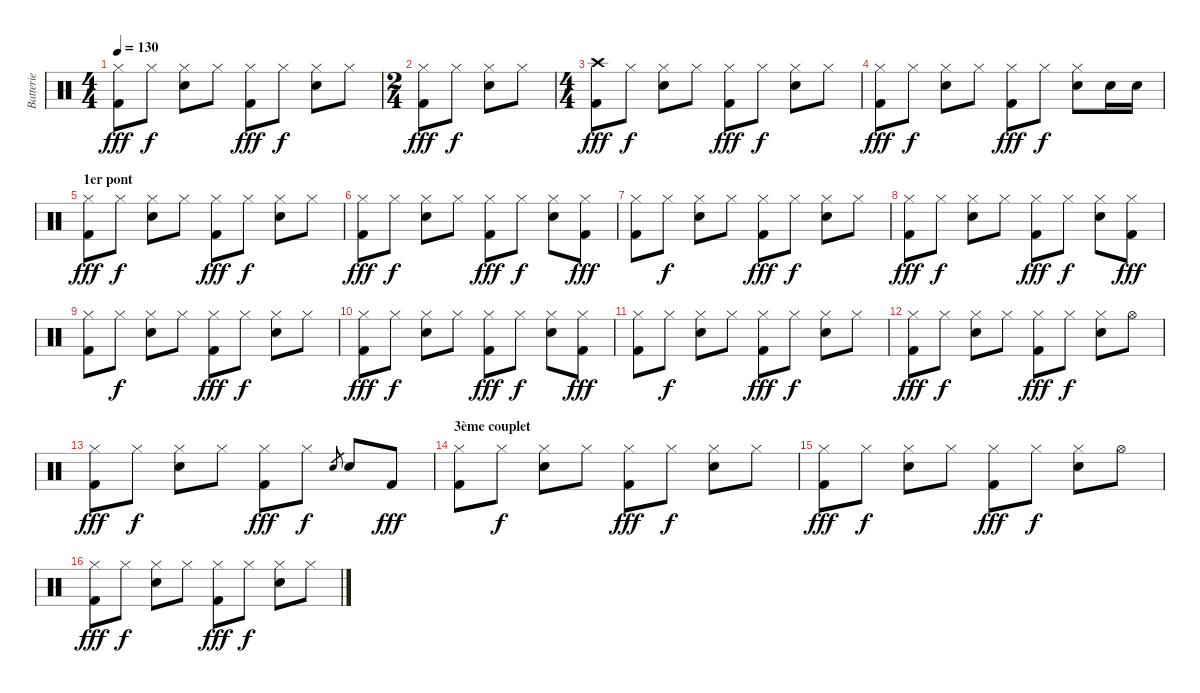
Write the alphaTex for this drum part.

\track ("Batterie" "Batterie") {instrument percussion}
\staff {score}
\articulation defaults
\ts (4 4)
\tempo 130
\clef neutral
\ks c
("Hi-Hat (closed)" "Kick (hit) 2").8{dy fff} "Hi-Hat (closed)".8{dy f} ("Hi-Hat (closed)" "Snare (hit) 2").8 "Hi-Hat (closed)".8 ("Hi-Hat (closed)" "Kick (hit) 2").8{dy fff} "Hi-Hat (closed)".8{dy f} ("Hi-Hat (closed)" "Snare (hit) 2").8 "Hi-Hat (closed)".8 |
\ts (2 4)
("Hi-Hat (closed)" "Kick (hit) 2").8{dy fff} "Hi-Hat (closed)".8{dy f} ("Hi-Hat (closed)" "Snare (hit) 2").8 "Hi-Hat (closed)".8 |
\ts (4 4)
("Crash high (hit)" "Kick (hit) 2").8{dy fff} "Hi-Hat (closed)".8{dy f} ("Hi-Hat (closed)" "Snare (hit) 2").8 "Hi-Hat (closed)".8 ("Hi-Hat (closed)" "Kick (hit) 2").8{dy fff} "Hi-Hat (closed)".8{dy f} ("Hi-Hat (closed)" "Snare (hit) 2").8 "Hi-Hat (closed)".8 |
("Hi-Hat (closed)" "Kick (hit) 2").8{dy fff} "Hi-Hat (closed)".8{dy f} ("Hi-Hat (closed)" "Snare (hit) 2").8 "Hi-Hat (closed)".8 ("Hi-Hat (closed)" "Kick (hit) 2").8{dy fff} "Hi-Hat (closed)".8{dy f} ("Hi-Hat (closed)" "Snare (hit) 2").8 "Snare (hit) 2".16 "Snare (hit) 2".16 |
\section ("" "1er pont")
("Hi-Hat (closed)" "Kick (hit) 2").8{dy fff} "Hi-Hat (closed)".8{dy f} ("Hi-Hat (closed)" "Snare (hit) 2").8 "Hi-Hat (closed)".8 ("Hi-Hat (closed)" "Kick (hit) 2").8{dy fff} "Hi-Hat (closed)".8{dy f} ("Hi-Hat (closed)" "Snare (hit) 2").8 "Hi-Hat (closed)".8 |
("Hi-Hat (closed)" "Kick (hit) 2").8{dy fff} "Hi-Hat (closed)".8{dy f} ("Hi-Hat (closed)" "Snare (hit) 2").8 "Hi-Hat (closed)".8 ("Hi-Hat (closed)" "Kick (hit) 2").8{dy fff} "Hi-Hat (closed)".8{dy f} ("Hi-Hat (closed)" "Snare (hit) 2").8 ("Hi-Hat (closed)" "Kick (hit) 2").8{dy fff} |
("Hi-Hat (closed)" "Kick (hit) 2").8 "Hi-Hat (closed)".8{dy f} ("Hi-Hat (closed)" "Snare (hit) 2").8 "Hi-Hat (closed)".8 ("Hi-Hat (closed)" "Kick (hit) 2").8{dy fff} "Hi-Hat (closed)".8{dy f} ("Hi-Hat (closed)" "Snare (hit) 2").8 "Hi-Hat (closed)".8 |
("Hi-Hat (closed)" "Kick (hit) 2").8{dy fff} "Hi-Hat (closed)".8{dy f} ("Hi-Hat (closed)" "Snare (hit) 2").8 "Hi-Hat (closed)".8 ("Hi-Hat (closed)" "Kick (hit) 2").8{dy fff} "Hi-Hat (closed)".8{dy f} ("Hi-Hat (closed)" "Snare (hit) 2").8 ("Hi-Hat (closed)" "Kick (hit) 2").8{dy fff} |
("Hi-Hat (closed)" "Kick (hit) 2").8 "Hi-Hat (closed)".8{dy f} ("Hi-Hat (closed)" "Snare (hit) 2").8 "Hi-Hat (closed)".8 ("Hi-Hat (closed)" "Kick (hit) 2").8{dy fff} "Hi-Hat (closed)".8{dy f} ("Hi-Hat (closed)" "Snare (hit) 2").8 "Hi-Hat (closed)".8 |
("Hi-Hat (closed)" "Kick (hit) 2").8{dy fff} "Hi-Hat (closed)".8{dy f} ("Hi-Hat (closed)" "Snare (hit) 2").8 "Hi-Hat (closed)".8 ("Hi-Hat (closed)" "Kick (hit) 2").8{dy fff} "Hi-Hat (closed)".8{dy f} ("Hi-Hat (closed)" "Snare (hit) 2").8 ("Hi-Hat (closed)" "Kick (hit) 2").8{dy fff} |
("Hi-Hat (closed)" "Kick (hit) 2").8 "Hi-Hat (closed)".8{dy f} ("Hi-Hat (closed)" "Snare (hit) 2").8 "Hi-Hat (closed)".8 ("Hi-Hat (closed)" "Kick (hit) 2").8{dy fff} "Hi-Hat (closed)".8{dy f} ("Hi-Hat (closed)" "Snare (hit) 2").8 "Hi-Hat (closed)".8 |
("Hi-Hat (closed)" "Kick (hit) 2").8{dy fff} "Hi-Hat (closed)".8{dy f} ("Hi-Hat (closed)" "Snare (hit) 2").8 "Hi-Hat (closed)".8 ("Hi-Hat (closed)" "Kick (hit) 2").8{dy fff} "Hi-Hat (closed)".8{dy f} ("Hi-Hat (closed)" "Snare (hit) 2").8 "Hi-Hat (open)".8 |
("Hi-Hat (closed)" "Kick (hit) 2").8{dy fff} "Hi-Hat (closed)".8{dy f} ("Hi-Hat (closed)" "Snare (hit) 2").8 "Hi-Hat (closed)".8 ("Hi-Hat (closed)" "Kick (hit) 2").8{dy fff} "Hi-Hat (closed)".8{dy f} "Snare (hit) 2".8{gr} "Snare (hit) 2".8 "Kick (hit) 2".8{dy fff} |
\section ("" "3ème couplet")
("Hi-Hat (closed)" "Kick (hit) 2").8 "Hi-Hat (closed)".8{dy f} ("Hi-Hat (closed)" "Snare (hit) 2").8 "Hi-Hat (closed)".8 ("Hi-Hat (closed)" "Kick (hit) 2").8{dy fff} "Hi-Hat (closed)".8{dy f} ("Hi-Hat (closed)" "Snare (hit) 2").8 "Hi-Hat (closed)".8 |
("Hi-Hat (closed)" "Kick (hit) 2").8{dy fff} "Hi-Hat (closed)".8{dy f} ("Hi-Hat (closed)" "Snare (hit) 2").8 "Hi-Hat (closed)".8 ("Hi-Hat (closed)" "Kick (hit) 2").8{dy fff} "Hi-Hat (closed)".8{dy f} ("Hi-Hat (closed)" "Snare (hit) 2").8 "Hi-Hat (open)".8 |
("Hi-Hat (closed)" "Kick (hit) 2").8{dy fff} "Hi-Hat (closed)".8{dy f} ("Hi-Hat (closed)" "Snare (hit) 2").8 "Hi-Hat (closed)".8 ("Hi-Hat (closed)" "Kick (hit) 2").8{dy fff} "Hi-Hat (closed)".8{dy f} ("Hi-Hat (closed)" "Snare (hit) 2").8 "Hi-Hat (closed)".8
